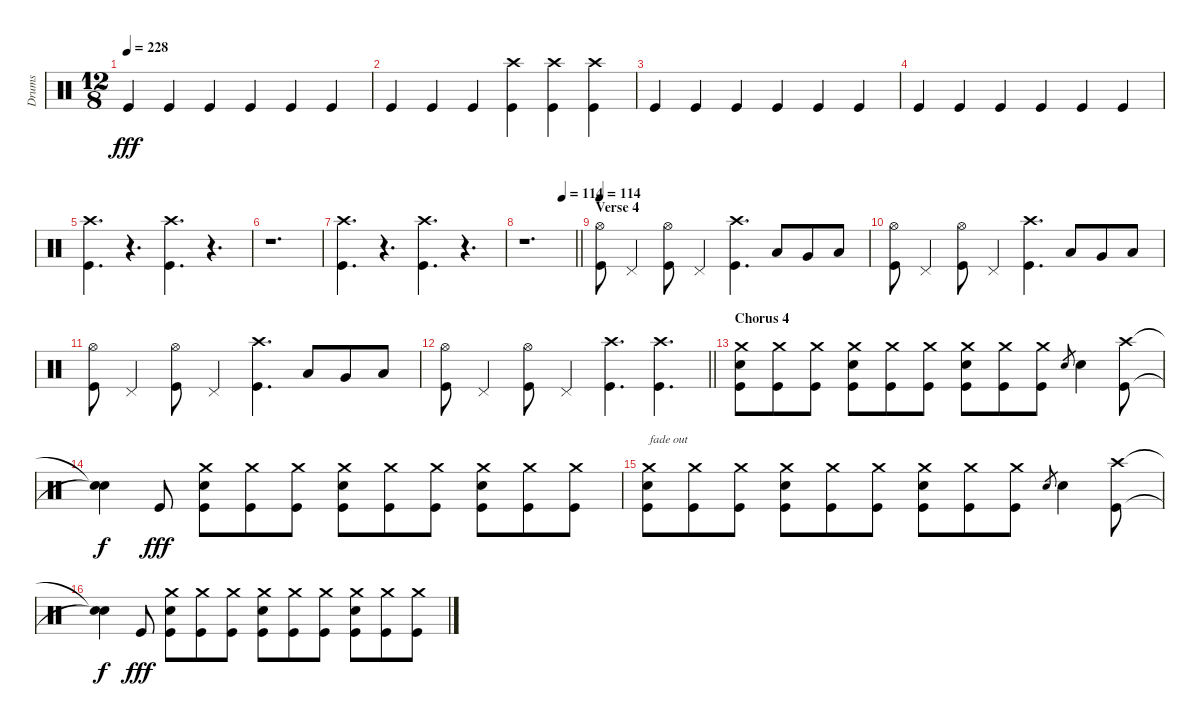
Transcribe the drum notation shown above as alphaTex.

\track ("Drums" "Drums") {instrument percussion}
\staff {score}
\articulation defaults
\ts (12 8)
\tempo 228
\clef neutral
\ks c "Kick (hit)".4{dy fff} "Kick (hit)".4 "Kick (hit)".4 "Kick (hit)".4 "Kick (hit)".4 "Kick (hit)".4
|
"Kick (hit)".4 "Kick (hit)".4 "Kick (hit)".4 ("Crash high (hit)" "Kick (hit)").4 ("Crash high (hit)" "Kick (hit)").4 ("Crash high (hit)" "Kick (hit)").4 |
"Kick (hit)".4 "Kick (hit)".4 "Kick (hit)".4 "Kick (hit)".4 "Kick (hit)".4 "Kick (hit)".4 |
"Kick (hit)".4 "Kick (hit)".4 "Kick (hit)".4 "Kick (hit)".4 "Kick (hit)".4 "Kick (hit)".4 |
("Crash high (hit)" "Kick (hit)").4{d} r.4{d} ("Crash high (hit)" "Kick (hit)").4{d} r.4{d} |
r.1{d} |
("Crash high (hit)" "Kick (hit)").4{d} r.4{d} ("Crash high (hit)" "Kick (hit)").4{d} r.4{d} |
\tempo (114 0.75)
\barLineRight lightlight
r.1{d} |
\section ("" "Verse 4")
\tempo 114
("Hi-Hat (open)" "Kick (hit)").8 "Pedal Hi-Hat (hit)".4 ("Hi-Hat (open)" "Kick (hit)").8 "Pedal Hi-Hat (hit)".4 ("Crash high (hit)" "Kick (hit)").4{d} "Low Tom (hit)".8 "Very Low Tom (hit)".8 "Low Floor Tom (hit)".8 |
("Hi-Hat (open)" "Kick (hit)").8 "Pedal Hi-Hat (hit)".4 ("Hi-Hat (open)" "Kick (hit)").8 "Pedal Hi-Hat (hit)".4 ("Crash high (hit)" "Kick (hit)").4{d} "Low Tom (hit)".8 "Very Low Tom (hit)".8 "Low Floor Tom (hit)".8 |
("Hi-Hat (open)" "Kick (hit)").8 "Pedal Hi-Hat (hit)".4 ("Hi-Hat (open)" "Kick (hit)").8 "Pedal Hi-Hat (hit)".4 ("Crash high (hit)" "Kick (hit)").4{d} "Low Tom (hit)".8 "Very Low Tom (hit)".8 "Low Floor Tom (hit)".8 |
\barLineRight lightlight
("Hi-Hat (open)" "Kick (hit)").8 "Pedal Hi-Hat (hit)".4 ("Hi-Hat (open)" "Kick (hit)").8 "Pedal Hi-Hat (hit)".4 ("Crash high (hit)" "Kick (hit)").4{d} ("Crash high (hit)" "Kick (hit)").4{d} |
\section ("" "Chorus 4")
("Crash medium (hit)" "Snare (hit) 2" "Kick (hit)").8 ("Crash medium (hit)" "Kick (hit)").8 ("Crash medium (hit)" "Kick (hit)").8 ("Crash medium (hit)" "Snare (hit) 2" "Kick (hit)").8 ("Crash medium (hit)" "Kick (hit)").8 ("Crash medium (hit)" "Kick (hit)").8 ("Crash medium (hit)" "Snare (hit) 2" "Kick (hit)").8 ("Crash medium (hit)" "Kick (hit)").8 ("Crash medium (hit)" "Kick (hit)").8 "Snare (hit) 2".8{gr} "Snare (hit) 2".4 ("Crash high (hit)" "Kick (hit)").8 |
("Snare (hit)"{t} "Snare (hit)"{t}).4{dy f} "Kick (hit)".8{dy fff} ("Crash medium (hit)" "Snare (hit) 2" "Kick (hit)").8 ("Crash medium (hit)" "Kick (hit)").8 ("Crash medium (hit)" "Kick (hit)").8 ("Crash medium (hit)" "Snare (hit) 2" "Kick (hit)").8 ("Crash medium (hit)" "Kick (hit)").8 ("Crash medium (hit)" "Kick (hit)").8 ("Crash medium (hit)" "Snare (hit) 2" "Kick (hit)").8 ("Crash medium (hit)" "Kick (hit)").8 ("Crash medium (hit)" "Kick (hit)").8 |
("Crash medium (hit)" "Snare (hit) 2" "Kick (hit)").8{txt "fade out"} ("Crash medium (hit)" "Kick (hit)").8 ("Crash medium (hit)" "Kick (hit)").8 ("Crash medium (hit)" "Snare (hit) 2" "Kick (hit)").8 ("Crash medium (hit)" "Kick (hit)").8 ("Crash medium (hit)" "Kick (hit)").8 ("Crash medium (hit)" "Snare (hit) 2" "Kick (hit)").8 ("Crash medium (hit)" "Kick (hit)").8 ("Crash medium (hit)" "Kick (hit)").8 "Snare (hit) 2".8{gr} "Snare (hit) 2".4 ("Crash high (hit)" "Kick (hit)").8 |
("Snare (hit)"{t} "Snare (hit)"{t}).4{dy f volume 0} "Kick (hit)".8{dy fff} ("Crash medium (hit)" "Snare (hit) 2" "Kick (hit)").8 ("Crash medium (hit)" "Kick (hit)").8 ("Crash medium (hit)" "Kick (hit)").8 ("Crash medium (hit)" "Snare (hit) 2" "Kick (hit)").8 ("Crash medium (hit)" "Kick (hit)").8 ("Crash medium (hit)" "Kick (hit)").8 ("Crash medium (hit)" "Snare (hit) 2" "Kick (hit)").8 ("Crash medium (hit)" "Kick (hit)").8 ("Crash medium (hit)" "Kick (hit)").8
